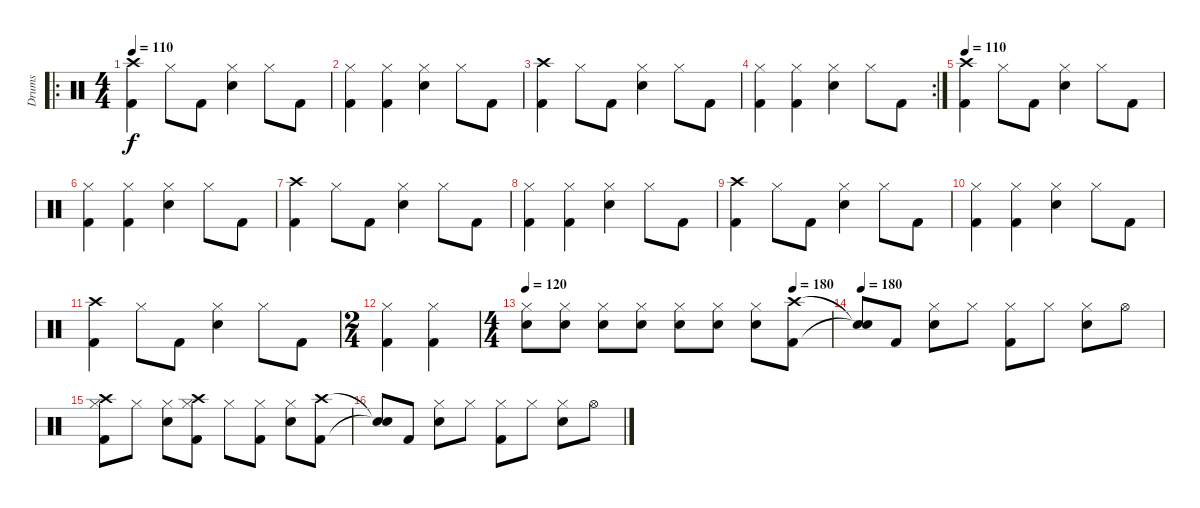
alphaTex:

\track ("Drums" "Drums") {instrument percussion}
\staff {score}
\articulation defaults
\ro
\ts (4 4)
\tempo 110
\clef neutral
\ks c
("Kick (hit) 2" "Crash high (hit)").4{dy f} "Hi-Hat (closed)".8 "Kick (hit) 2".8 ("Snare (hit) 2" "Hi-Hat (closed)").4 "Hi-Hat (closed)".8 "Kick (hit) 2".8 |
("Kick (hit) 2" "Hi-Hat (closed)").4 ("Kick (hit) 2" "Hi-Hat (closed)").4 ("Snare (hit) 2" "Hi-Hat (closed)").4 "Hi-Hat (closed)".8 "Kick (hit) 2".8 |
("Kick (hit) 2" "Crash high (hit)").4 "Hi-Hat (closed)".8 "Kick (hit) 2".8 ("Snare (hit) 2" "Hi-Hat (closed)").4 "Hi-Hat (closed)".8 "Kick (hit) 2".8 |
\rc 2
("Kick (hit) 2" "Hi-Hat (closed)").4 ("Kick (hit) 2" "Hi-Hat (closed)").4 ("Snare (hit) 2" "Hi-Hat (closed)").4 "Hi-Hat (closed)".8 "Kick (hit) 2".8 |
\tempo 110
("Kick (hit) 2" "Crash high (hit)").4 "Hi-Hat (closed)".8 "Kick (hit) 2".8 ("Snare (hit) 2" "Hi-Hat (closed)").4 "Hi-Hat (closed)".8 "Kick (hit) 2".8 |
("Kick (hit) 2" "Hi-Hat (closed)").4 ("Kick (hit) 2" "Hi-Hat (closed)").4 ("Snare (hit) 2" "Hi-Hat (closed)").4 "Hi-Hat (closed)".8 "Kick (hit) 2".8 |
("Kick (hit) 2" "Crash high (hit)").4 "Hi-Hat (closed)".8 "Kick (hit) 2".8 ("Snare (hit) 2" "Hi-Hat (closed)").4 "Hi-Hat (closed)".8 "Kick (hit) 2".8 |
("Kick (hit) 2" "Hi-Hat (closed)").4 ("Kick (hit) 2" "Hi-Hat (closed)").4 ("Snare (hit) 2" "Hi-Hat (closed)").4 "Hi-Hat (closed)".8 "Kick (hit) 2".8 |
("Kick (hit) 2" "Crash high (hit)").4 "Hi-Hat (closed)".8 "Kick (hit) 2".8 ("Snare (hit) 2" "Hi-Hat (closed)").4 "Hi-Hat (closed)".8 "Kick (hit) 2".8 |
("Kick (hit) 2" "Hi-Hat (closed)").4 ("Kick (hit) 2" "Hi-Hat (closed)").4 ("Snare (hit) 2" "Hi-Hat (closed)").4 "Hi-Hat (closed)".8 "Kick (hit) 2".8 |
("Kick (hit) 2" "Crash high (hit)").4 "Hi-Hat (closed)".8 "Kick (hit) 2".8 ("Snare (hit) 2" "Hi-Hat (closed)").4 "Hi-Hat (closed)".8 "Kick (hit) 2".8 |
\ts (2 4)
("Kick (hit) 2" "Hi-Hat (closed)").4 ("Kick (hit) 2" "Hi-Hat (closed)").4 |
\ts (4 4)
\tempo 120
\tempo (180 0.875)
("Hi-Hat (closed)" "Snare (hit) 2").8 ("Hi-Hat (closed)" "Snare (hit) 2").8 ("Hi-Hat (closed)" "Snare (hit) 2").8 ("Hi-Hat (closed)" "Snare (hit) 2").8 ("Hi-Hat (closed)" "Snare (hit) 2").8 ("Hi-Hat (closed)" "Snare (hit) 2").8 ("Hi-Hat (closed)" "Snare (hit) 2").8 ("Crash high (hit)" "Kick (hit) 2").8 |
\tempo 180
("Snare (hit)"{t} "Snare (hit)"{t}).8 "Kick (hit) 2".8 ("Snare (hit) 2" "Hi-Hat (closed)").8 "Hi-Hat (closed)".8 ("Kick (hit) 2" "Hi-Hat (closed)").8 "Hi-Hat (closed)".8 ("Snare (hit) 2" "Hi-Hat (closed)").8 "Hi-Hat (open)".8 |
("Kick (hit) 2" "Hi-Hat (closed)" "Crash high (hit)").8 "Hi-Hat (closed)".8 ("Snare (hit) 2" "Hi-Hat (closed)").8 ("Kick (hit) 2" "Hi-Hat (closed)" "Crash high (hit)").8 "Hi-Hat (closed)".8 ("Kick (hit) 2" "Hi-Hat (closed)").8 ("Snare (hit) 2" "Hi-Hat (closed)").8 ("Kick (hit) 2" "Crash high (hit)").8 |
("Snare (hit)"{t} "Snare (hit)"{t}).8 "Kick (hit) 2".8 ("Snare (hit) 2" "Hi-Hat (closed)").8 "Hi-Hat (closed)".8 ("Kick (hit) 2" "Hi-Hat (closed)").8 "Hi-Hat (closed)".8 ("Snare (hit) 2" "Hi-Hat (closed)").8 "Hi-Hat (open)".8
